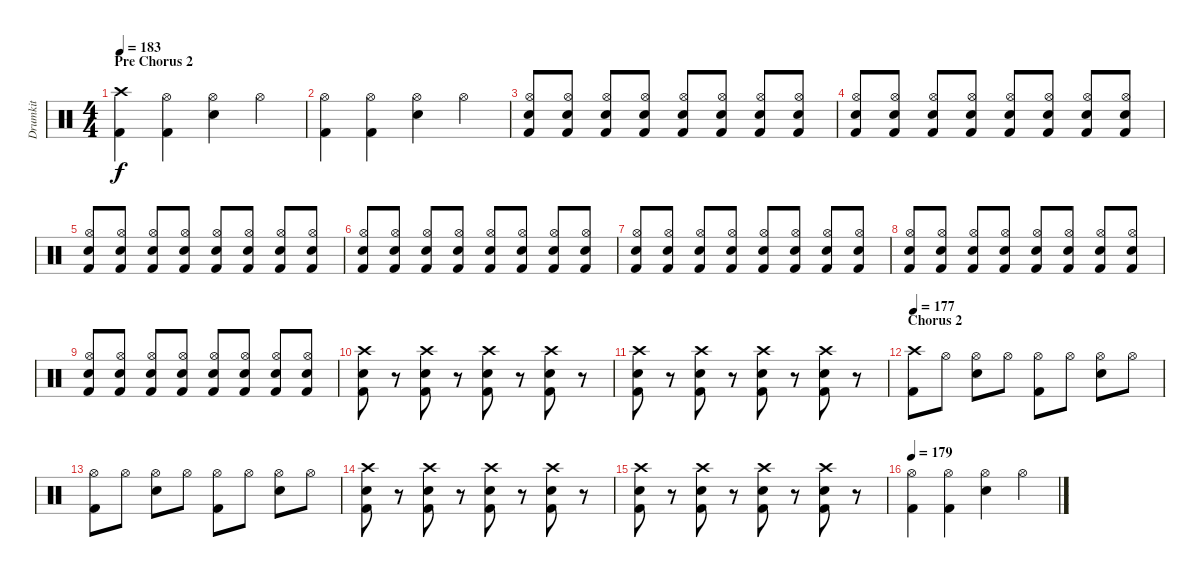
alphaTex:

\track ("Drumkit" "Drumkit") {instrument percussion}
\staff {score}
\articulation defaults
\ts (4 4)
\section ("" "Pre Chorus 2")
\tempo 183
\clef neutral
\ks c
("Crash high (hit)" "Kick (hit) 2").4{dy f} ("Kick (hit) 2" "Hi-Hat (open)").4 ("Snare (hit) 2" "Hi-Hat (open)").4 "Hi-Hat (open)".4 |
("Kick (hit) 2" "Hi-Hat (open)").4 ("Kick (hit) 2" "Hi-Hat (open)").4 ("Snare (hit) 2" "Hi-Hat (open)").4 "Hi-Hat (open)".4 |
("Kick (hit) 2" "Snare (hit) 2" "Hi-Hat (open)").8 ("Snare (hit) 2" "Kick (hit) 2" "Hi-Hat (open)").8 ("Kick (hit) 2" "Snare (hit) 2" "Hi-Hat (open)").8 ("Snare (hit) 2" "Kick (hit) 2" "Hi-Hat (open)").8 ("Kick (hit) 2" "Snare (hit) 2" "Hi-Hat (open)").8 ("Snare (hit) 2" "Kick (hit) 2" "Hi-Hat (open)").8 ("Kick (hit) 2" "Snare (hit) 2" "Hi-Hat (open)").8 ("Snare (hit) 2" "Kick (hit) 2" "Hi-Hat (open)").8 |
("Kick (hit) 2" "Snare (hit) 2" "Hi-Hat (open)").8 ("Snare (hit) 2" "Kick (hit) 2" "Hi-Hat (open)").8 ("Kick (hit) 2" "Snare (hit) 2" "Hi-Hat (open)").8 ("Snare (hit) 2" "Kick (hit) 2" "Hi-Hat (open)").8 ("Kick (hit) 2" "Snare (hit) 2" "Hi-Hat (open)").8 ("Snare (hit) 2" "Kick (hit) 2" "Hi-Hat (open)").8 ("Kick (hit) 2" "Snare (hit) 2" "Hi-Hat (open)").8 ("Snare (hit) 2" "Kick (hit) 2" "Hi-Hat (open)").8 |
("Kick (hit) 2" "Snare (hit) 2" "Hi-Hat (open)").8 ("Snare (hit) 2" "Kick (hit) 2" "Hi-Hat (open)").8 ("Kick (hit) 2" "Snare (hit) 2" "Hi-Hat (open)").8 ("Snare (hit) 2" "Kick (hit) 2" "Hi-Hat (open)").8 ("Kick (hit) 2" "Snare (hit) 2" "Hi-Hat (open)").8 ("Snare (hit) 2" "Kick (hit) 2" "Hi-Hat (open)").8 ("Kick (hit) 2" "Snare (hit) 2" "Hi-Hat (open)").8 ("Snare (hit) 2" "Kick (hit) 2" "Hi-Hat (open)").8 |
("Kick (hit) 2" "Snare (hit) 2" "Hi-Hat (open)").8 ("Snare (hit) 2" "Kick (hit) 2" "Hi-Hat (open)").8 ("Kick (hit) 2" "Snare (hit) 2" "Hi-Hat (open)").8 ("Snare (hit) 2" "Kick (hit) 2" "Hi-Hat (open)").8 ("Kick (hit) 2" "Snare (hit) 2" "Hi-Hat (open)").8 ("Snare (hit) 2" "Kick (hit) 2" "Hi-Hat (open)").8 ("Kick (hit) 2" "Snare (hit) 2" "Hi-Hat (open)").8 ("Snare (hit) 2" "Kick (hit) 2" "Hi-Hat (open)").8 |
("Kick (hit) 2" "Snare (hit) 2" "Hi-Hat (open)").8 ("Snare (hit) 2" "Kick (hit) 2" "Hi-Hat (open)").8 ("Kick (hit) 2" "Snare (hit) 2" "Hi-Hat (open)").8 ("Snare (hit) 2" "Kick (hit) 2" "Hi-Hat (open)").8 ("Kick (hit) 2" "Snare (hit) 2" "Hi-Hat (open)").8 ("Snare (hit) 2" "Kick (hit) 2" "Hi-Hat (open)").8 ("Kick (hit) 2" "Snare (hit) 2" "Hi-Hat (open)").8 ("Snare (hit) 2" "Kick (hit) 2" "Hi-Hat (open)").8 |
("Kick (hit) 2" "Snare (hit) 2" "Hi-Hat (open)").8 ("Snare (hit) 2" "Kick (hit) 2" "Hi-Hat (open)").8 ("Kick (hit) 2" "Snare (hit) 2" "Hi-Hat (open)").8 ("Snare (hit) 2" "Kick (hit) 2" "Hi-Hat (open)").8 ("Kick (hit) 2" "Snare (hit) 2" "Hi-Hat (open)").8 ("Snare (hit) 2" "Kick (hit) 2" "Hi-Hat (open)").8 ("Kick (hit) 2" "Snare (hit) 2" "Hi-Hat (open)").8 ("Snare (hit) 2" "Kick (hit) 2" "Hi-Hat (open)").8 |
("Kick (hit) 2" "Snare (hit) 2" "Hi-Hat (open)").8 ("Snare (hit) 2" "Kick (hit) 2" "Hi-Hat (open)").8 ("Kick (hit) 2" "Snare (hit) 2" "Hi-Hat (open)").8 ("Snare (hit) 2" "Kick (hit) 2" "Hi-Hat (open)").8 ("Kick (hit) 2" "Snare (hit) 2" "Hi-Hat (open)").8 ("Snare (hit) 2" "Kick (hit) 2" "Hi-Hat (open)").8 ("Kick (hit) 2" "Snare (hit) 2" "Hi-Hat (open)").8 ("Snare (hit) 2" "Kick (hit) 2" "Hi-Hat (open)").8 |
("Snare (hit) 2" "Kick (hit) 2" "Crash high (hit)").8 r.8 ("Snare (hit) 2" "Kick (hit) 2" "Crash high (hit)").8 r.8 ("Snare (hit) 2" "Kick (hit) 2" "Crash high (hit)").8 r.8 ("Snare (hit) 2" "Kick (hit) 2" "Crash high (hit)").8 r.8 |
("Snare (hit) 2" "Kick (hit) 2" "Crash high (hit)").8 r.8 ("Snare (hit) 2" "Kick (hit) 2" "Crash high (hit)").8 r.8 ("Snare (hit) 2" "Kick (hit) 2" "Crash high (hit)").8 r.8 ("Snare (hit) 2" "Kick (hit) 2" "Crash high (hit)").8 r.8 |
\section ("" "Chorus 2")
\tempo 177
("Crash high (hit)" "Kick (hit) 2").8 "Hi-Hat (open)".8 ("Snare (hit) 2" "Hi-Hat (open)").8 "Hi-Hat (open)".8 ("Kick (hit) 2" "Hi-Hat (open)").8 "Hi-Hat (open)".8 ("Snare (hit) 2" "Hi-Hat (open)").8 "Hi-Hat (open)".8 |
("Kick (hit) 2" "Hi-Hat (open)").8 "Hi-Hat (open)".8 ("Snare (hit) 2" "Hi-Hat (open)").8 "Hi-Hat (open)".8 ("Kick (hit) 2" "Hi-Hat (open)").8 "Hi-Hat (open)".8 ("Snare (hit) 2" "Hi-Hat (open)").8 "Hi-Hat (open)".8 |
("Snare (hit) 2" "Kick (hit) 2" "Crash high (hit)").8 r.8 ("Snare (hit) 2" "Kick (hit) 2" "Crash high (hit)").8 r.8 ("Snare (hit) 2" "Kick (hit) 2" "Crash high (hit)").8 r.8 ("Snare (hit) 2" "Kick (hit) 2" "Crash high (hit)").8 r.8 |
("Snare (hit) 2" "Kick (hit) 2" "Crash high (hit)").8 r.8 ("Snare (hit) 2" "Kick (hit) 2" "Crash high (hit)").8 r.8 ("Snare (hit) 2" "Kick (hit) 2" "Crash high (hit)").8 r.8 ("Snare (hit) 2" "Kick (hit) 2" "Crash high (hit)").8 r.8 |
\tempo 179
("Kick (hit) 2" "Hi-Hat (open)").4 ("Kick (hit) 2" "Hi-Hat (open)").4 ("Snare (hit) 2" "Hi-Hat (open)").4 "Hi-Hat (open)".4
